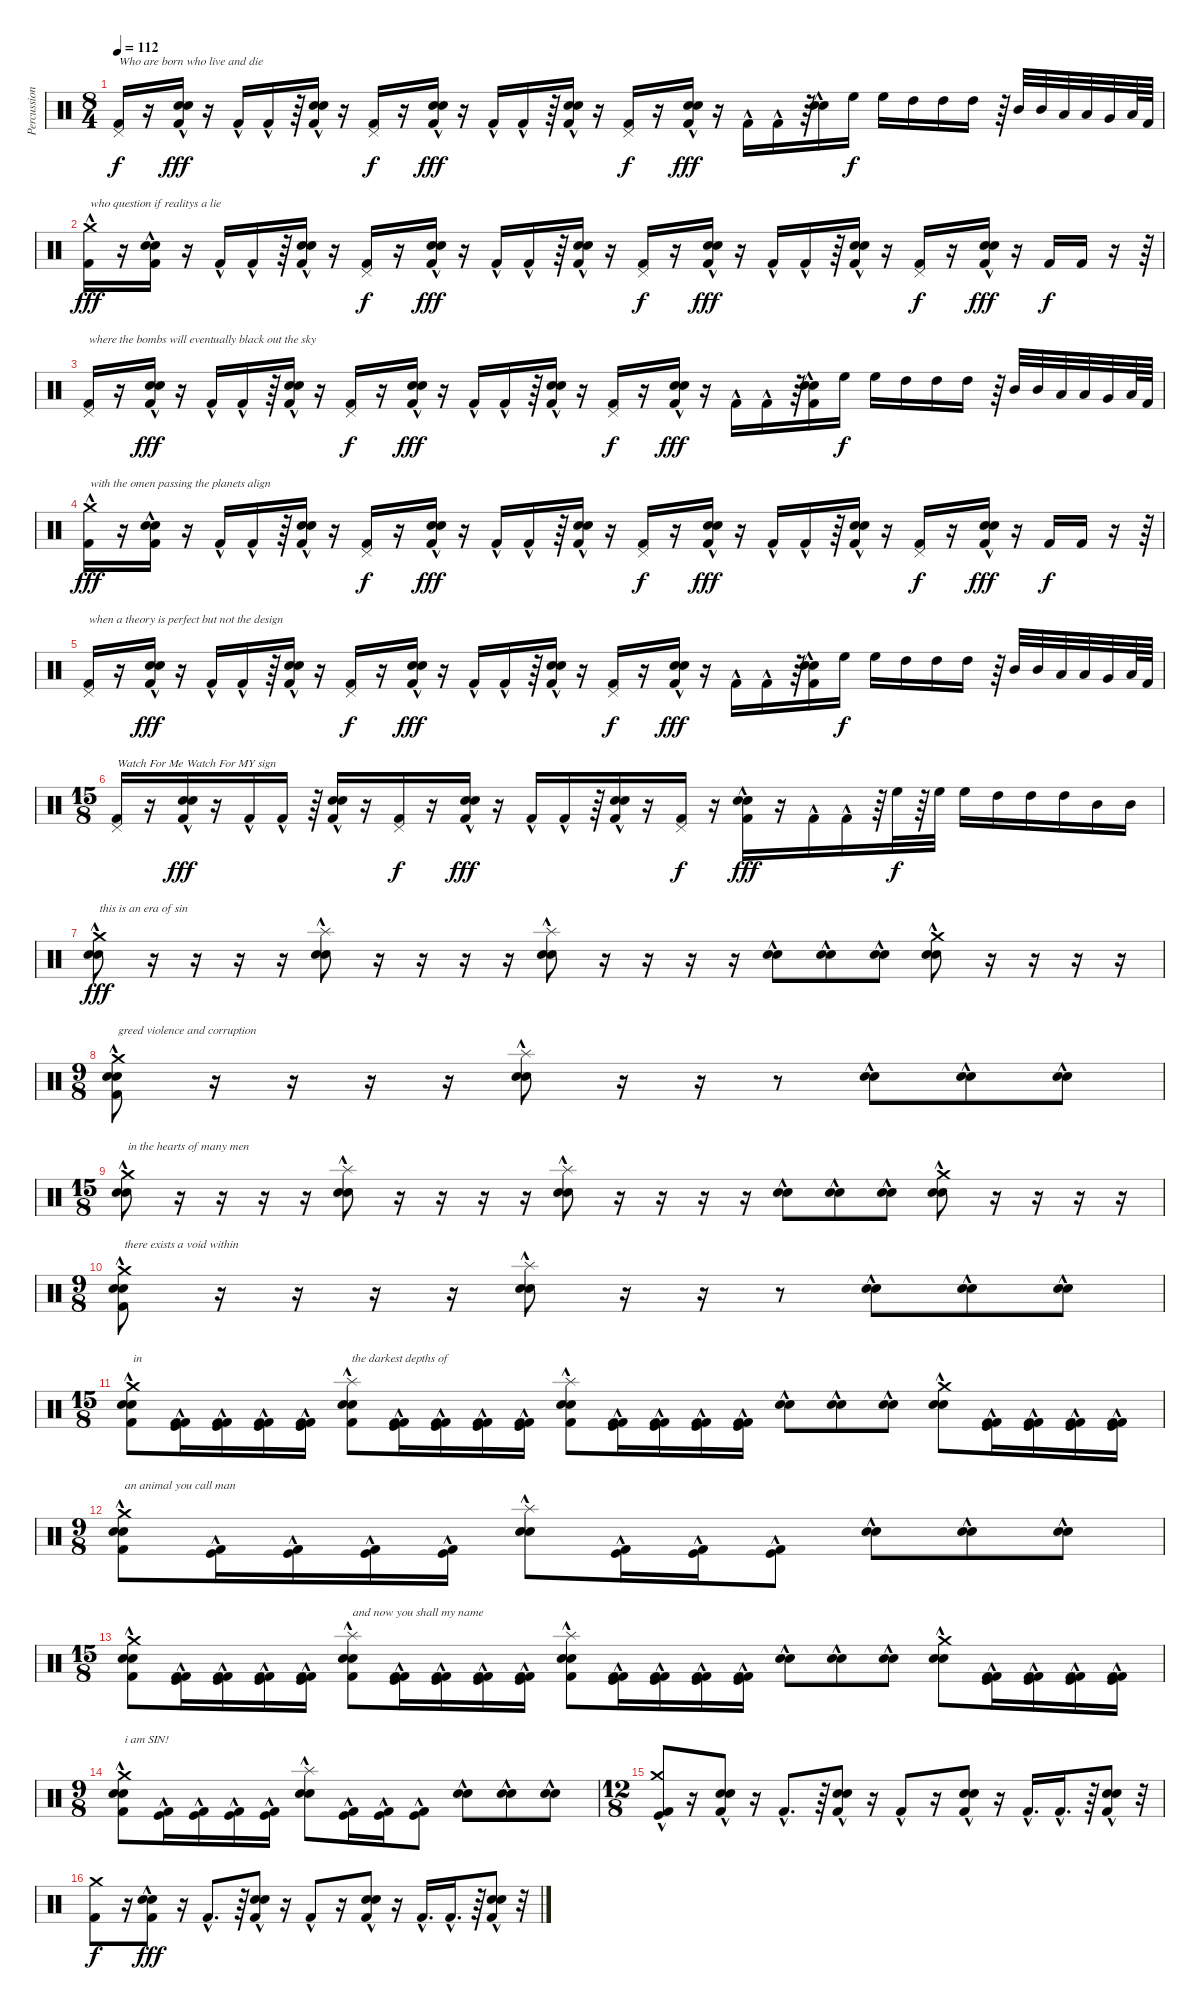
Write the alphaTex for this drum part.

\track ("Percussion" "Percussion") {instrument percussion}
\staff {score}
\articulation defaults
\ts (8 4)
\tempo 112
\clef neutral
\ks c
("Pedal Hi-Hat (hit)" "Kick (hit) 2").16{txt "Who are born who live and die" dy f} r.16 ("Electric Snare (hit)"{hac} "Snare (hit) 2"{hac} "Kick (hit) 2").16{dy fff} r.16 "Kick (hit) 2"{hac}.16 "Kick (hit) 2"{hac}.16 r.64 ("Electric Snare (hit)"{hac} "Snare (hit) 2"{hac} "Kick (hit) 2").16 r.16 ("Pedal Hi-Hat (hit)" "Kick (hit) 2").16{dy f} r.16 ("Electric Snare (hit)"{hac} "Snare (hit) 2"{hac} "Kick (hit) 2").16{dy fff} r.16 "Kick (hit) 2"{hac}.16 "Kick (hit) 2"{hac}.16 r.64 ("Electric Snare (hit)"{hac} "Snare (hit) 2"{hac} "Kick (hit) 2").16 r.16 ("Pedal Hi-Hat (hit)" "Kick (hit) 2").16{dy f} r.16 ("Electric Snare (hit)"{hac} "Snare (hit) 2"{hac} "Kick (hit) 2").16{dy fff} r.16 "Kick (hit) 2"{hac}.16 "Kick (hit) 2"{hac}.16 r.64 ("Electric Snare (hit)"{hac} "Snare (hit) 2"{hac}).16 "High Floor Tom (hit)".16{dy f} "High Floor Tom (hit)".16 "High Tom (hit)".16 "High Tom (hit)".16 "High Tom (hit)".16 r.64 "Mid Tom (hit)".32 "Mid Tom (hit)".32 "Low Tom (hit)".32 "Low Tom (hit)".32 "Very Low Tom (hit)".32 "Low Floor Tom (hit)".64 "Kick (hit) 2".64 |
("Crash medium (hit)"{hac} "Kick (hit) 2"{hac}).16{txt "who question if realitys a lie" dy fff} r.16 ("Electric Snare (hit)"{hac} "Snare (hit) 2"{hac} "Kick (hit) 2").16 r.16 "Kick (hit) 2"{hac}.16 "Kick (hit) 2"{hac}.16 r.64 ("Electric Snare (hit)"{hac} "Snare (hit) 2"{hac} "Kick (hit) 2").16 r.16 ("Pedal Hi-Hat (hit)" "Kick (hit) 2").16{dy f} r.16 ("Electric Snare (hit)"{hac} "Snare (hit) 2"{hac} "Kick (hit) 2").16{dy fff} r.16 "Kick (hit) 2"{hac}.16 "Kick (hit) 2"{hac}.16 r.64 ("Electric Snare (hit)"{hac} "Snare (hit) 2"{hac} "Kick (hit) 2").16 r.16 ("Pedal Hi-Hat (hit)" "Kick (hit) 2").16{dy f} r.16 ("Electric Snare (hit)"{hac} "Snare (hit) 2"{hac} "Kick (hit) 2").16{dy fff} r.16 "Kick (hit) 2"{hac}.16 "Kick (hit) 2"{hac}.16 r.64 ("Electric Snare (hit)"{hac} "Snare (hit) 2"{hac} "Kick (hit) 2").16 r.16 ("Pedal Hi-Hat (hit)" "Kick (hit) 2").16{dy f} r.16 ("Electric Snare (hit)"{hac} "Snare (hit) 2"{hac} "Kick (hit) 2"{hac}).16{dy fff} r.16 "Kick (hit) 2".16{dy f} "Kick (hit) 2".16 r.16 r.64 |
("Pedal Hi-Hat (hit)" "Kick (hit) 2").16{txt "where the bombs will eventually black out the sky"} r.16 ("Electric Snare (hit)"{hac} "Snare (hit) 2"{hac} "Kick (hit) 2").16{dy fff} r.16 "Kick (hit) 2"{hac}.16 "Kick (hit) 2"{hac}.16 r.64 ("Electric Snare (hit)"{hac} "Snare (hit) 2"{hac} "Kick (hit) 2").16 r.16 ("Pedal Hi-Hat (hit)" "Kick (hit) 2").16{dy f} r.16 ("Electric Snare (hit)"{hac} "Snare (hit) 2"{hac} "Kick (hit) 2").16{dy fff} r.16 "Kick (hit) 2"{hac}.16 "Kick (hit) 2"{hac}.16 r.64 ("Electric Snare (hit)"{hac} "Snare (hit) 2"{hac} "Kick (hit) 2").16 r.16 ("Pedal Hi-Hat (hit)" "Kick (hit) 2").16{dy f} r.16 ("Electric Snare (hit)"{hac} "Snare (hit) 2"{hac} "Kick (hit) 2").16{dy fff} r.16 "Kick (hit) 2"{hac}.16 "Kick (hit) 2"{hac}.16 r.64 ("Electric Snare (hit)"{hac} "Snare (hit) 2"{hac} "Kick (hit) 2"{hac}).16 "High Floor Tom (hit)".16{dy f} "High Floor Tom (hit)".16 "High Tom (hit)".16 "High Tom (hit)".16 "High Tom (hit)".16 r.64 "Mid Tom (hit)".32 "Mid Tom (hit)".32 "Low Tom (hit)".32 "Low Tom (hit)".32 "Very Low Tom (hit)".32 "Low Floor Tom (hit)".64 "Kick (hit) 2".64 |
("Crash medium (hit)"{hac} "Kick (hit) 2"{hac}).16{txt "with the omen passing the planets align" dy fff} r.16 ("Electric Snare (hit)"{hac} "Snare (hit) 2"{hac} "Kick (hit) 2").16 r.16 "Kick (hit) 2"{hac}.16 "Kick (hit) 2"{hac}.16 r.64 ("Electric Snare (hit)"{hac} "Snare (hit) 2"{hac} "Kick (hit) 2").16 r.16 ("Pedal Hi-Hat (hit)" "Kick (hit) 2").16{dy f} r.16 ("Electric Snare (hit)"{hac} "Snare (hit) 2"{hac} "Kick (hit) 2").16{dy fff} r.16 "Kick (hit) 2"{hac}.16 "Kick (hit) 2"{hac}.16 r.64 ("Electric Snare (hit)"{hac} "Snare (hit) 2"{hac} "Kick (hit) 2").16 r.16 ("Pedal Hi-Hat (hit)" "Kick (hit) 2").16{dy f} r.16 ("Electric Snare (hit)"{hac} "Snare (hit) 2"{hac} "Kick (hit) 2").16{dy fff} r.16 "Kick (hit) 2"{hac}.16 "Kick (hit) 2"{hac}.16 r.64 ("Electric Snare (hit)"{hac} "Snare (hit) 2"{hac} "Kick (hit) 2").16 r.16 ("Pedal Hi-Hat (hit)" "Kick (hit) 2").16{dy f} r.16 ("Electric Snare (hit)"{hac} "Snare (hit) 2"{hac} "Kick (hit) 2"{hac}).16{dy fff} r.16 "Kick (hit) 2".16{dy f} "Kick (hit) 2".16 r.16 r.64 |
("Pedal Hi-Hat (hit)" "Kick (hit) 2").16{txt "when a theory is perfect but not the design"} r.16 ("Electric Snare (hit)"{hac} "Snare (hit) 2"{hac} "Kick (hit) 2").16{dy fff} r.16 "Kick (hit) 2"{hac}.16 "Kick (hit) 2"{hac}.16 r.64 ("Electric Snare (hit)"{hac} "Snare (hit) 2"{hac} "Kick (hit) 2").16 r.16 ("Pedal Hi-Hat (hit)" "Kick (hit) 2").16{dy f} r.16 ("Electric Snare (hit)"{hac} "Snare (hit) 2"{hac} "Kick (hit) 2").16{dy fff} r.16 "Kick (hit) 2"{hac}.16 "Kick (hit) 2"{hac}.16 r.64 ("Electric Snare (hit)"{hac} "Snare (hit) 2"{hac} "Kick (hit) 2").16 r.16 ("Pedal Hi-Hat (hit)" "Kick (hit) 2").16{dy f} r.16 ("Electric Snare (hit)"{hac} "Snare (hit) 2"{hac} "Kick (hit) 2").16{dy fff} r.16 "Kick (hit) 2"{hac}.16 "Kick (hit) 2"{hac}.16 r.64 ("Electric Snare (hit)"{hac} "Snare (hit) 2"{hac} "Kick (hit) 2"{hac}).16 "High Floor Tom (hit)".16{dy f} "High Floor Tom (hit)".16 "High Tom (hit)".16 "High Tom (hit)".16 "High Tom (hit)".16 r.64 "Mid Tom (hit)".32 "Mid Tom (hit)".32 "Low Tom (hit)".32 "Low Tom (hit)".32 "Very Low Tom (hit)".32 "Low Floor Tom (hit)".64 "Kick (hit) 2".64 |
\ts (15 8)
("Pedal Hi-Hat (hit)" "Kick (hit) 2").16{txt "Watch For Me Watch For MY sign"} r.16 ("Electric Snare (hit)"{hac} "Snare (hit) 2"{hac} "Kick (hit) 2").16{dy fff} r.16 "Kick (hit) 2"{hac}.16 "Kick (hit) 2"{hac}.16 r.64 ("Electric Snare (hit)"{hac} "Snare (hit) 2"{hac} "Kick (hit) 2").16 r.16 ("Pedal Hi-Hat (hit)" "Kick (hit) 2").16{dy f} r.16 ("Electric Snare (hit)"{hac} "Snare (hit) 2"{hac} "Kick (hit) 2").16{dy fff} r.16 "Kick (hit) 2"{hac}.16 "Kick (hit) 2"{hac}.16 r.64 ("Electric Snare (hit)"{hac} "Snare (hit) 2"{hac} "Kick (hit) 2").16 r.16 ("Pedal Hi-Hat (hit)" "Kick (hit) 2").16{dy f} r.16 ("Electric Snare (hit)"{hac} "Snare (hit) 2"{hac} "Kick (hit) 2").16{dy fff} r.16 "Kick (hit) 2"{hac}.16 "Kick (hit) 2"{hac}.16 r.64 "High Floor Tom (hit)".32{dy f} r.64 "High Floor Tom (hit)".32 "High Floor Tom (hit)".16 "High Tom (hit)".16 "High Tom (hit)".16 "High Tom (hit)".16 "Mid Tom (hit)".16 "Mid Tom (hit)".16 |
("Crash medium (hit)" "Snare (hit) 2"{hac} "Electric Snare (hit)").8{txt "this is an era of sin" dy fff} r.16 r.16 r.16 r.16 ("Splash (hit)" "Snare (hit) 2"{hac} "Electric Snare (hit)"{hac}).8 r.16 r.16 r.16 r.16 ("Splash (hit)" "Snare (hit) 2"{hac} "Electric Snare (hit)"{hac}).8 r.16 r.16 r.16 r.16 ("Snare (hit) 2"{hac} "Electric Snare (hit)"{hac}).8 ("Snare (hit) 2"{hac} "Electric Snare (hit)"{hac}).8 ("Snare (hit) 2"{hac} "Electric Snare (hit)"{hac}).8 ("Crash medium (hit)" "Snare (hit) 2"{hac} "Electric Snare (hit)"{hac}).8 r.16 r.16 r.16 r.16 |
\ts (9 8)
("Crash medium (hit)"{hac} "Kick (hit) 2"{hac} "Snare (hit) 2"{hac} "Electric Snare (hit)"{hac}).8{txt "greed violence and corruption"} r.16 r.16 r.16 r.16 ("Splash (hit)"{hac} "Snare (hit) 2"{hac} "Electric Snare (hit)"{hac}).8 r.16 r.16 r.8 ("Snare (hit) 2"{hac} "Electric Snare (hit)"{hac}).8 ("Snare (hit) 2"{hac} "Electric Snare (hit)"{hac}).8 ("Snare (hit) 2"{hac} "Electric Snare (hit)"{hac}).8 |
\ts (15 8)
("Crash medium (hit)" "Snare (hit) 2"{hac} "Electric Snare (hit)").8{txt "in the hearts of many men"} r.16 r.16 r.16 r.16 ("Splash (hit)" "Snare (hit) 2"{hac} "Electric Snare (hit)"{hac}).8 r.16 r.16 r.16 r.16 ("Splash (hit)" "Snare (hit) 2"{hac} "Electric Snare (hit)"{hac}).8 r.16 r.16 r.16 r.16 ("Snare (hit) 2"{hac} "Electric Snare (hit)"{hac}).8 ("Snare (hit) 2"{hac} "Electric Snare (hit)"{hac}).8 ("Snare (hit) 2"{hac} "Electric Snare (hit)"{hac}).8 ("Crash medium (hit)" "Snare (hit) 2"{hac} "Electric Snare (hit)"{hac}).8 r.16 r.16 r.16 r.16 |
\ts (9 8)
("Crash medium (hit)"{hac} "Kick (hit) 2"{hac} "Snare (hit) 2"{hac} "Electric Snare (hit)"{hac}).8{txt "there exists a void within"} r.16 r.16 r.16 r.16 ("Splash (hit)"{hac} "Snare (hit) 2"{hac} "Electric Snare (hit)"{hac}).8 r.16 r.16 r.8 ("Snare (hit) 2"{hac} "Electric Snare (hit)"{hac}).8 ("Snare (hit) 2"{hac} "Electric Snare (hit)"{hac}).8 ("Snare (hit) 2"{hac} "Electric Snare (hit)"{hac}).8 |
\ts (15 8)
("Crash medium (hit)" "Snare (hit) 2"{hac} "Electric Snare (hit)" "Kick (hit) 2").8{txt "in"} ("Kick (hit)"{hac} "Kick (hit) 2"{hac} "Kick (hit) 2"{hac}).16 ("Kick (hit)"{hac} "Kick (hit) 2"{hac} "Kick (hit) 2"{hac}).16 ("Kick (hit)"{hac} "Kick (hit) 2"{hac} "Kick (hit) 2"{hac}).16 ("Kick (hit)"{hac} "Kick (hit) 2"{hac} "Kick (hit) 2"{hac}).16 ("Splash (hit)" "Snare (hit) 2"{hac} "Electric Snare (hit)"{hac} "Kick (hit) 2"{hac}).8{txt "the darkest depths of "} ("Kick (hit)"{hac} "Kick (hit) 2"{hac} "Kick (hit) 2"{hac}).16 ("Kick (hit)"{hac} "Kick (hit) 2"{hac} "Kick (hit) 2"{hac}).16 ("Kick (hit)"{hac} "Kick (hit) 2"{hac} "Kick (hit) 2"{hac}).16 ("Kick (hit)"{hac} "Kick (hit) 2"{hac} "Kick (hit) 2"{hac}).16 ("Splash (hit)" "Snare (hit) 2"{hac} "Electric Snare (hit)"{hac} "Kick (hit) 2"{hac}).8 ("Kick (hit)"{hac} "Kick (hit) 2"{hac} "Kick (hit) 2"{hac}).16 ("Kick (hit)"{hac} "Kick (hit) 2"{hac} "Kick (hit) 2"{hac}).16 ("Kick (hit)"{hac} "Kick (hit) 2"{hac} "Kick (hit) 2"{hac}).16 ("Kick (hit)"{hac} "Kick (hit) 2"{hac} "Kick (hit) 2"{hac}).16 ("Snare (hit) 2"{hac} "Electric Snare (hit)"{hac}).8 ("Snare (hit) 2"{hac} "Electric Snare (hit)"{hac}).8 ("Snare (hit) 2"{hac} "Electric Snare (hit)"{hac}).8 ("Crash medium (hit)" "Snare (hit) 2"{hac} "Electric Snare (hit)"{hac}).8 ("Kick (hit)"{hac} "Kick (hit) 2"{hac} "Kick (hit) 2"{hac}).16 ("Kick (hit)"{hac} "Kick (hit) 2"{hac} "Kick (hit) 2"{hac}).16 ("Kick (hit)"{hac} "Kick (hit) 2"{hac} "Kick (hit) 2"{hac}).16 ("Kick (hit)"{hac} "Kick (hit) 2"{hac} "Kick (hit) 2"{hac}).16 |
\ts (9 8)
("Crash medium (hit)"{hac} "Kick (hit) 2"{hac} "Snare (hit) 2"{hac} "Electric Snare (hit)"{hac}).8{txt "an animal you call man"} ("Kick (hit)"{hac} "Kick (hit) 2").16 ("Kick (hit)"{hac} "Kick (hit) 2").16 ("Kick (hit)"{hac} "Kick (hit) 2").16 ("Kick (hit)"{hac} "Kick (hit) 2").16 ("Splash (hit)"{hac} "Snare (hit) 2"{hac} "Electric Snare (hit)"{hac}).8 ("Kick (hit)"{hac} "Kick (hit) 2").16 ("Kick (hit)"{hac} "Kick (hit) 2").16 ("Kick (hit)"{hac} "Kick (hit) 2").8 ("Snare (hit) 2"{hac} "Electric Snare (hit)"{hac}).8 ("Snare (hit) 2"{hac} "Electric Snare (hit)"{hac}).8 ("Snare (hit) 2"{hac} "Electric Snare (hit)"{hac}).8 |
\ts (15 8)
("Crash medium (hit)" "Snare (hit) 2"{hac} "Electric Snare (hit)" "Kick (hit) 2").8 ("Kick (hit)"{hac} "Kick (hit) 2"{hac} "Kick (hit) 2"{hac}).16 ("Kick (hit)"{hac} "Kick (hit) 2"{hac} "Kick (hit) 2"{hac}).16 ("Kick (hit)"{hac} "Kick (hit) 2"{hac} "Kick (hit) 2"{hac}).16 ("Kick (hit)"{hac} "Kick (hit) 2"{hac} "Kick (hit) 2"{hac}).16 ("Splash (hit)" "Snare (hit) 2"{hac} "Electric Snare (hit)"{hac} "Kick (hit) 2"{hac}).8{txt "and now you shall my name"} ("Kick (hit)"{hac} "Kick (hit) 2"{hac} "Kick (hit) 2"{hac}).16 ("Kick (hit)"{hac} "Kick (hit) 2"{hac} "Kick (hit) 2"{hac}).16 ("Kick (hit)"{hac} "Kick (hit) 2"{hac} "Kick (hit) 2"{hac}).16 ("Kick (hit)"{hac} "Kick (hit) 2"{hac} "Kick (hit) 2"{hac}).16 ("Splash (hit)" "Snare (hit) 2"{hac} "Electric Snare (hit)"{hac} "Kick (hit) 2"{hac}).8 ("Kick (hit)"{hac} "Kick (hit) 2"{hac} "Kick (hit) 2"{hac}).16 ("Kick (hit)"{hac} "Kick (hit) 2"{hac} "Kick (hit) 2"{hac}).16 ("Kick (hit)"{hac} "Kick (hit) 2"{hac} "Kick (hit) 2"{hac}).16 ("Kick (hit)"{hac} "Kick (hit) 2"{hac} "Kick (hit) 2"{hac}).16 ("Snare (hit) 2"{hac} "Electric Snare (hit)"{hac}).8 ("Snare (hit) 2"{hac} "Electric Snare (hit)"{hac}).8 ("Snare (hit) 2"{hac} "Electric Snare (hit)"{hac}).8 ("Crash medium (hit)" "Snare (hit) 2"{hac} "Electric Snare (hit)"{hac}).8 ("Kick (hit)"{hac} "Kick (hit) 2"{hac} "Kick (hit) 2"{hac}).16 ("Kick (hit)"{hac} "Kick (hit) 2"{hac} "Kick (hit) 2"{hac}).16 ("Kick (hit)"{hac} "Kick (hit) 2"{hac} "Kick (hit) 2"{hac}).16 ("Kick (hit)"{hac} "Kick (hit) 2"{hac} "Kick (hit) 2"{hac}).16 |
\ts (9 8)
("Crash medium (hit)"{hac} "Kick (hit) 2"{hac} "Snare (hit) 2"{hac} "Electric Snare (hit)"{hac}).8{txt "i am SIN!"} ("Kick (hit)"{hac} "Kick (hit) 2").16 ("Kick (hit)"{hac} "Kick (hit) 2").16 ("Kick (hit)"{hac} "Kick (hit) 2").16 ("Kick (hit)"{hac} "Kick (hit) 2").16 ("Splash (hit)"{hac} "Snare (hit) 2"{hac} "Electric Snare (hit)"{hac}).8 ("Kick (hit)"{hac} "Kick (hit) 2").16 ("Kick (hit)"{hac} "Kick (hit) 2").16 ("Kick (hit)"{hac} "Kick (hit) 2").8 ("Snare (hit) 2"{hac} "Electric Snare (hit)"{hac}).8 ("Snare (hit) 2"{hac} "Electric Snare (hit)"{hac}).8 ("Snare (hit) 2"{hac} "Electric Snare (hit)"{hac}).8 |
\ts (12 8)
("Crash medium (hit)"{hac} "Kick (hit)"{hac} "Kick (hit) 2"{hac}).8 r.16 ("Electric Snare (hit)"{hac} "Snare (hit) 2"{hac} "Kick (hit) 2").8 r.16 "Kick (hit) 2"{hac}.8{d} r.64 ("Electric Snare (hit)"{hac} "Snare (hit) 2"{hac} "Kick (hit) 2"{hac}).8 r.16 "Kick (hit) 2"{hac}.8 r.16 ("Electric Snare (hit)"{hac} "Snare (hit) 2"{hac} "Kick (hit) 2"{hac}).8 r.16 "Kick (hit) 2"{hac}.16{d} "Kick (hit) 2"{hac}.16{d} r.64 ("Electric Snare (hit)"{hac} "Snare (hit) 2"{hac} "Kick (hit) 2").8 r.32 |
("Crash medium (hit)" "Kick (hit) 2").8{dy f} r.16 ("Electric Snare (hit)"{hac} "Snare (hit) 2"{hac} "Kick (hit) 2").8{dy fff} r.16 "Kick (hit) 2"{hac}.8{d} r.64 ("Electric Snare (hit)"{hac} "Snare (hit) 2"{hac} "Kick (hit) 2"{hac}).8 r.16 "Kick (hit) 2"{hac}.8 r.16 ("Electric Snare (hit)"{hac} "Snare (hit) 2"{hac} "Kick (hit) 2"{hac}).8 r.16 "Kick (hit) 2"{hac}.16{d} "Kick (hit) 2"{hac}.16{d} r.64 ("Electric Snare (hit)"{hac} "Snare (hit) 2"{hac} "Kick (hit) 2").8 r.32
